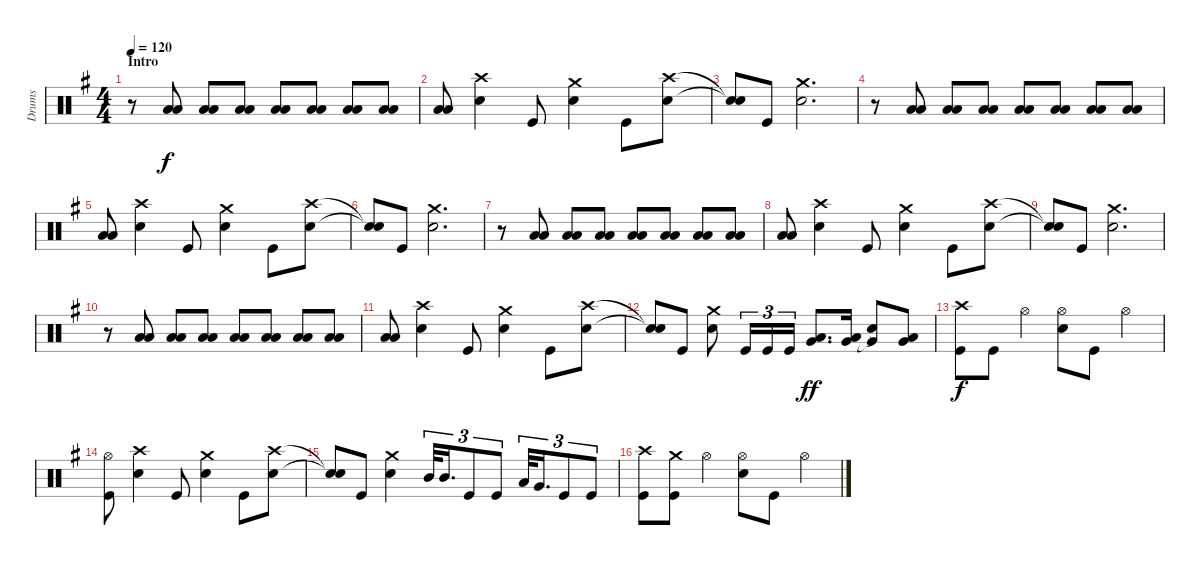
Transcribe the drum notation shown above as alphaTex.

\track ("Drums" "Drums") {instrument percussion}
\staff {score}
\articulation defaults
\ts (4 4)
\section ("" "Intro")
\tempo 120
\clef neutral
\ks eminor
r.8{dy f} ("Low Tom (hit)" "Low Floor Tom (hit)").8 ("Low Tom (hit)" "Low Floor Tom (hit)").8 ("Low Tom (hit)" "Low Floor Tom (hit)").8 ("Low Tom (hit)" "Low Floor Tom (hit)").8 ("Low Tom (hit)" "Low Floor Tom (hit)").8 ("Low Tom (hit)" "Low Floor Tom (hit)").8 ("Low Tom (hit)" "Low Floor Tom (hit)").8 |
("Low Tom (hit)" "Low Floor Tom (hit)").8 ("Crash high (hit)" "Snare (hit) 2").4 "Kick (hit)".8 ("Crash medium (hit)" "Snare (hit) 2").4 "Kick (hit)".8 ("Crash high (hit)" "Snare (hit) 2").8 |
("Snare (hit)"{t} "Snare (hit)"{t}).8 "Kick (hit)".8 ("Crash medium (hit)" "Snare (hit) 2").2{d} |
r.8 ("Low Tom (hit)" "Low Floor Tom (hit)").8 ("Low Tom (hit)" "Low Floor Tom (hit)").8 ("Low Tom (hit)" "Low Floor Tom (hit)").8 ("Low Tom (hit)" "Low Floor Tom (hit)").8 ("Low Tom (hit)" "Low Floor Tom (hit)").8 ("Low Tom (hit)" "Low Floor Tom (hit)").8 ("Low Tom (hit)" "Low Floor Tom (hit)").8 |
("Low Tom (hit)" "Low Floor Tom (hit)").8 ("Crash high (hit)" "Snare (hit) 2").4 "Kick (hit)".8 ("Crash medium (hit)" "Snare (hit) 2").4 "Kick (hit)".8 ("Crash high (hit)" "Snare (hit) 2").8 |
("Snare (hit)"{t} "Snare (hit)"{t}).8 "Kick (hit)".8 ("Crash medium (hit)" "Snare (hit) 2").2{d} |
r.8 ("Low Tom (hit)" "Low Floor Tom (hit)").8 ("Low Tom (hit)" "Low Floor Tom (hit)").8 ("Low Tom (hit)" "Low Floor Tom (hit)").8 ("Low Tom (hit)" "Low Floor Tom (hit)").8 ("Low Tom (hit)" "Low Floor Tom (hit)").8 ("Low Tom (hit)" "Low Floor Tom (hit)").8 ("Low Tom (hit)" "Low Floor Tom (hit)").8 |
("Low Tom (hit)" "Low Floor Tom (hit)").8 ("Crash high (hit)" "Snare (hit) 2").4 "Kick (hit)".8 ("Crash medium (hit)" "Snare (hit) 2").4 "Kick (hit)".8 ("Crash high (hit)" "Snare (hit) 2").8 |
("Snare (hit)"{t} "Snare (hit)"{t}).8 "Kick (hit)".8 ("Crash medium (hit)" "Snare (hit) 2").2{d} |
r.8 ("Low Tom (hit)" "Low Floor Tom (hit)").8 ("Low Tom (hit)" "Low Floor Tom (hit)").8 ("Low Tom (hit)" "Low Floor Tom (hit)").8 ("Low Tom (hit)" "Low Floor Tom (hit)").8 ("Low Tom (hit)" "Low Floor Tom (hit)").8 ("Low Tom (hit)" "Low Floor Tom (hit)").8 ("Low Tom (hit)" "Low Floor Tom (hit)").8 |
("Low Tom (hit)" "Low Floor Tom (hit)").8 ("Crash high (hit)" "Snare (hit) 2").4 "Kick (hit)".8 ("Crash medium (hit)" "Snare (hit) 2").4 "Kick (hit)".8 ("Crash high (hit)" "Snare (hit) 2").8 |
("Snare (hit)"{t} "Snare (hit)"{t}).8 "Kick (hit)".8 ("Crash medium (hit)" "Snare (hit) 2").8 "Kick (hit)".16{tu (3 2)} "Kick (hit)".16{tu (3 2)} "Kick (hit)".16{tu (3 2)} ("Very Low Tom (hit)" "Low Floor Tom (hit)").8{d dy ff} ("Very Low Tom (hit)" "Low Floor Tom (hit)").16 ("Snare (hit)"{t} "Very Low Tom (hit)"{t}).8 ("Very Low Tom (hit)" "Low Floor Tom (hit)").8 |
("Crash high (hit)" "Kick (hit)").8{dy f} "Kick (hit)".8 "Hi-Hat (open)".4 ("Hi-Hat (open)" "Snare (hit) 2").8 "Kick (hit)".8 "Hi-Hat (open)".4 |
("Hi-Hat (open)" "Kick (hit)").8 ("Crash high (hit)" "Snare (hit) 2").4 "Kick (hit)".8 ("Crash medium (hit)" "Snare (hit) 2").4 "Kick (hit)".8 ("Crash high (hit)" "Snare (hit) 2").8 |
("Snare (hit)"{t} "Snare (hit)"{t}).8 "Kick (hit)".8 ("Crash medium (hit)" "Snare (hit) 2").4 "Mid Tom (hit)".32{tu (3 2)} "Mid Tom (hit)".16{d tu (3 2)} "Kick (hit)".8{tu (3 2)} "Kick (hit)".8{tu (3 2)} "Low Tom (hit)".32{tu (3 2)} "Very Low Tom (hit)".16{d tu (3 2)} "Kick (hit)".8{tu (3 2)} "Kick (hit)".8{tu (3 2)} |
("Crash high (hit)" "Kick (hit)").8 ("Crash medium (hit)" "Kick (hit)").8 "Hi-Hat (open)".4 ("Hi-Hat (open)" "Snare (hit) 2").8 "Kick (hit)".8 "Hi-Hat (open)".4
